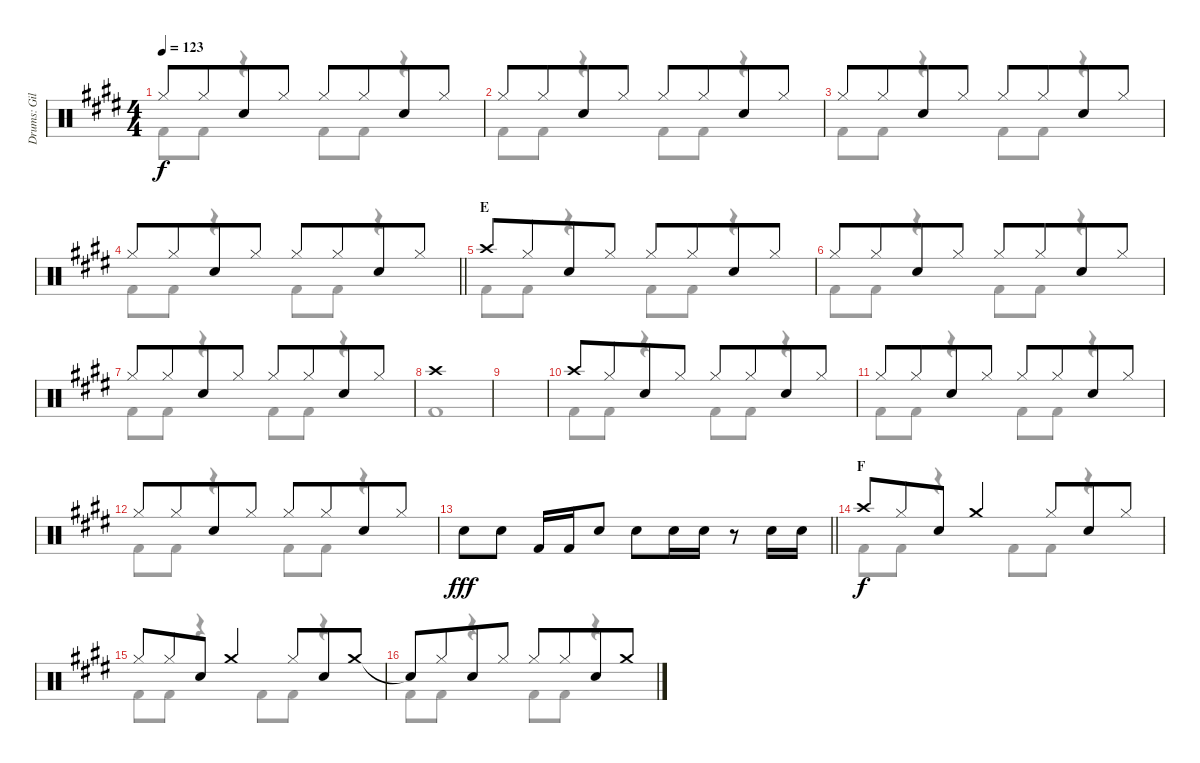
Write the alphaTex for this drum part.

\track ("Drums: Gil" "Drums: Gil") {instrument percussion}
\staff {score}
\articulation defaults
\voice
\ts (4 4)
\tempo 123
\clef neutral
\ks e "Hi-Hat (closed)".8{dy f} "Hi-Hat (closed)".8{beam merge} "Snare (hit) 2".8 "Hi-Hat (closed)".8 "Hi-Hat (closed)".8 "Hi-Hat (closed)".8{beam merge} "Snare (hit) 2".8 "Hi-Hat (closed)".8
|
"Hi-Hat (closed)".8 "Hi-Hat (closed)".8{beam merge} "Snare (hit) 2".8 "Hi-Hat (closed)".8 "Hi-Hat (closed)".8 "Hi-Hat (closed)".8{beam merge} "Snare (hit) 2".8 "Hi-Hat (closed)".8 |
"Hi-Hat (closed)".8 "Hi-Hat (closed)".8{beam merge} "Snare (hit) 2".8 "Hi-Hat (closed)".8 "Hi-Hat (closed)".8 "Hi-Hat (closed)".8{beam merge} "Snare (hit) 2".8 "Hi-Hat (closed)".8 |
\barLineRight lightlight "Hi-Hat (closed)".8 "Hi-Hat (closed)".8{beam merge} "Snare (hit) 2".8 "Hi-Hat (closed)".8 "Hi-Hat (closed)".8 "Hi-Hat (closed)".8{beam merge} "Snare (hit) 2".8 "Hi-Hat (closed)".8
|
\section ("" "E")
"Crash high (hit)".8 "Hi-Hat (closed)".8{beam merge} "Snare (hit) 2".8 "Hi-Hat (closed)".8 "Hi-Hat (closed)".8 "Hi-Hat (closed)".8{beam merge} "Snare (hit) 2".8 "Hi-Hat (closed)".8 |
"Hi-Hat (closed)".8 "Hi-Hat (closed)".8{beam merge} "Snare (hit) 2".8 "Hi-Hat (closed)".8 "Hi-Hat (closed)".8 "Hi-Hat (closed)".8{beam merge} "Snare (hit) 2".8 "Hi-Hat (closed)".8 |
"Hi-Hat (closed)".8 "Hi-Hat (closed)".8{beam merge} "Snare (hit) 2".8 "Hi-Hat (closed)".8 "Hi-Hat (closed)".8 "Hi-Hat (closed)".8{beam merge} "Snare (hit) 2".8 "Hi-Hat (closed)".8 |
"Crash high (hit)".1 |
|
"Crash high (hit)".8 "Hi-Hat (closed)".8{beam merge} "Snare (hit) 2".8 "Hi-Hat (closed)".8 "Hi-Hat (closed)".8 "Hi-Hat (closed)".8{beam merge} "Snare (hit) 2".8 "Hi-Hat (closed)".8 |
"Hi-Hat (closed)".8 "Hi-Hat (closed)".8{beam merge} "Snare (hit) 2".8 "Hi-Hat (closed)".8 "Hi-Hat (closed)".8 "Hi-Hat (closed)".8{beam merge} "Snare (hit) 2".8 "Hi-Hat (closed)".8 |
"Hi-Hat (closed)".8 "Hi-Hat (closed)".8{beam merge} "Snare (hit) 2".8 "Hi-Hat (closed)".8 "Hi-Hat (closed)".8 "Hi-Hat (closed)".8{beam merge} "Snare (hit) 2".8 "Hi-Hat (closed)".8 |
\barLineRight lightlight "Snare (hit) 2".8{dy fff} "Snare (hit) 2".8 "Kick (hit) 2".16 "Kick (hit) 2".16 "Snare (hit) 2".8 "Snare (hit) 2".8 "Snare (hit) 2".16 "Snare (hit) 2".16
r.8 "Snare (hit) 2".16 "Snare (hit) 2".16 |
\section ("" "F")
"Crash high (hit)".8{dy f} "Hi-Hat (closed)".8{beam merge} "Snare (hit) 2".8 "Crash medium (hit)".4 "Hi-Hat (closed)".8{beam merge} "Snare (hit) 2".8 "Hi-Hat (closed)".8 |
"Hi-Hat (closed)".8 "Hi-Hat (closed)".8{beam merge} "Snare (hit) 2".8 "Crash medium (hit)".4 "Hi-Hat (closed)".8{beam merge} "Snare (hit) 2".8 "Crash medium (hit)".8 |
"Snare (hit)"{t}.8 "Hi-Hat (closed)".8{beam merge} "Snare (hit) 2".8 "Hi-Hat (closed)".8 "Hi-Hat (closed)".8 "Hi-Hat (closed)".8{beam merge} "Snare (hit) 2".8 "Crash medium (hit)".8
\voice
\clef neutral
\ottava regular
\simile none
\ks e "Kick (hit) 2".8{dy f} "Kick (hit) 2".8
r.4 "Kick (hit) 2".8 "Kick (hit) 2".8 r.4 |
"Kick (hit) 2".8 "Kick (hit) 2".8 r.4 "Kick (hit) 2".8 "Kick (hit) 2".8 r.4 |
"Kick (hit) 2".8 "Kick (hit) 2".8 r.4 "Kick (hit) 2".8 "Kick (hit) 2".8 r.4 |
\barLineRight lightlight "Kick (hit) 2".8 "Kick (hit) 2".8
r.4 "Kick (hit) 2".8 "Kick (hit) 2".8 r.4 |
"Kick (hit) 2".8 "Kick (hit) 2".8 r.4 "Kick (hit) 2".8 "Kick (hit) 2".8 r.4 |
"Kick (hit) 2".8 "Kick (hit) 2".8 r.4 "Kick (hit) 2".8 "Kick (hit) 2".8 r.4 |
"Kick (hit) 2".8 "Kick (hit) 2".8 r.4 "Kick (hit) 2".8 "Kick (hit) 2".8 r.4 |
"Kick (hit) 2".1 |
|
"Kick (hit) 2".8 "Kick (hit) 2".8 r.4 "Kick (hit) 2".8 "Kick (hit) 2".8 r.4 |
"Kick (hit) 2".8 "Kick (hit) 2".8 r.4 "Kick (hit) 2".8 "Kick (hit) 2".8 r.4 |
"Kick (hit) 2".8 "Kick (hit) 2".8 r.4 "Kick (hit) 2".8 "Kick (hit) 2".8 r.4 |
\barLineRight lightlight
|
"Kick (hit) 2".8 "Kick (hit) 2".8 r.4 "Kick (hit) 2".8 "Kick (hit) 2".8 r.4 |
"Kick (hit) 2".8 "Kick (hit) 2".8 r.4 "Kick (hit) 2".8 "Kick (hit) 2".8 r.4 |
"Kick (hit) 2".8 "Kick (hit) 2".8 r.4 "Kick (hit) 2".8 "Kick (hit) 2".8 r.4
